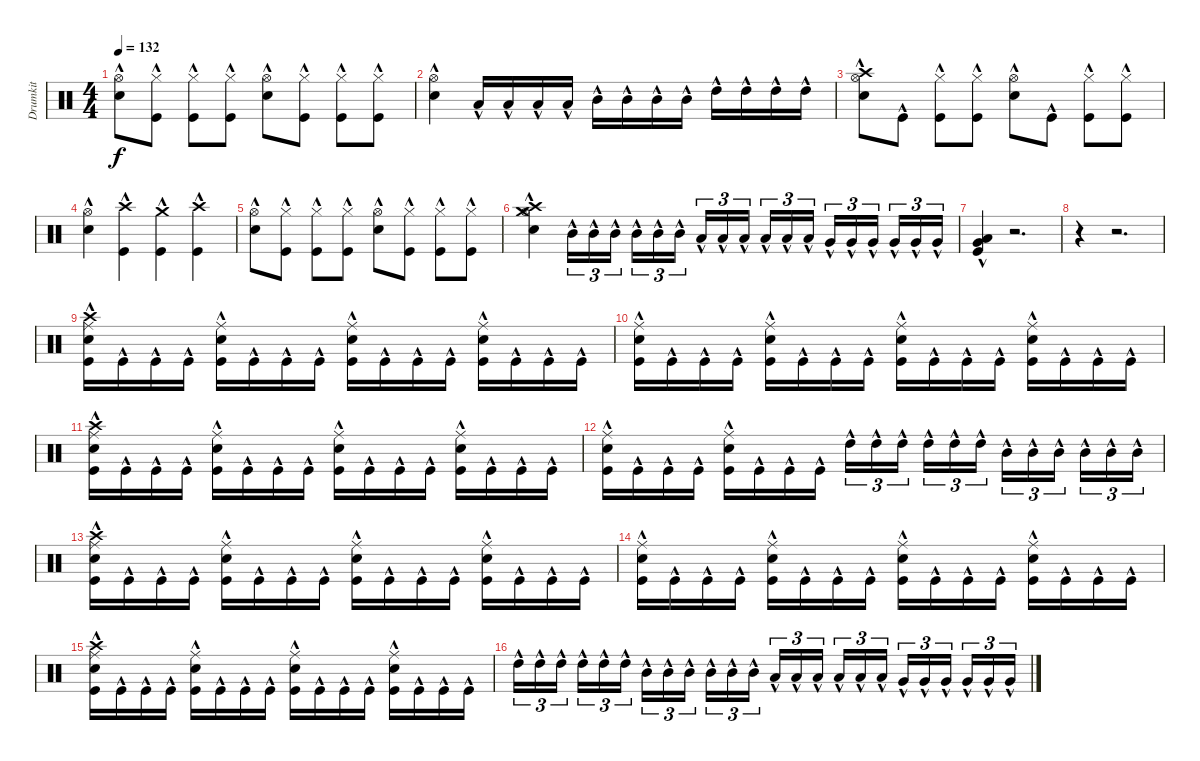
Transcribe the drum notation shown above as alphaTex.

\track ("Drumkit" "Drumkit") {instrument percussion}
\staff {score}
\articulation defaults
\ts (4 4)
\tempo 132
\clef neutral
\ks c
("Hi-Hat (open)"{hac} "Snare (hit) 2"{hac}).8{dy f} ("Kick (hit)"{hac} "Hi-Hat (closed)").8 ("Kick (hit)"{hac} "Hi-Hat (closed)").8 ("Kick (hit)"{hac} "Hi-Hat (closed)").8 ("Hi-Hat (open)"{hac} "Snare (hit) 2"{hac}).8 ("Kick (hit)"{hac} "Hi-Hat (closed)").8 ("Kick (hit)"{hac} "Hi-Hat (closed)").8 ("Kick (hit)"{hac} "Hi-Hat (closed)").8 |
("Hi-Hat (open)"{hac} "Snare (hit) 2"{hac}).4 "Low Tom (hit)"{hac}.16 "Low Tom (hit)"{hac}.16 "Low Tom (hit)"{hac}.16 "Low Tom (hit)"{hac}.16 "Mid Tom (hit)"{hac}.16 "Mid Tom (hit)"{hac}.16 "Mid Tom (hit)"{hac}.16 "Mid Tom (hit)"{hac}.16 "High Tom (hit)"{hac}.16 "High Tom (hit)"{hac}.16 "High Tom (hit)"{hac}.16 "High Tom (hit)"{hac}.16 |
("Hi-Hat (open)"{hac} "Snare (hit) 2"{hac} "Crash high (hit)").8 "Kick (hit)"{hac}.8 ("Kick (hit)"{hac} "Hi-Hat (closed)").8 ("Kick (hit)"{hac} "Hi-Hat (closed)").8 ("Hi-Hat (open)"{hac} "Snare (hit) 2"{hac}).8 "Kick (hit)"{hac}.8 ("Kick (hit)"{hac} "Hi-Hat (closed)").8 ("Kick (hit)"{hac} "Hi-Hat (closed)").8 |
("Hi-Hat (open)"{hac} "Snare (hit) 2"{hac}).4 ("Crash high (hit)"{hac} "Kick (hit)"{hac}).4 ("Crash medium (hit)"{hac} "Kick (hit)"{hac}).4 ("Crash high (hit)"{hac} "Kick (hit)"{hac}).4 |
("Hi-Hat (open)"{hac} "Snare (hit) 2"{hac}).8 ("Kick (hit)"{hac} "Hi-Hat (closed)").8 ("Kick (hit)"{hac} "Hi-Hat (closed)").8 ("Kick (hit)"{hac} "Hi-Hat (closed)").8 ("Hi-Hat (open)"{hac} "Snare (hit) 2"{hac}).8 ("Kick (hit)"{hac} "Hi-Hat (closed)").8 ("Kick (hit)"{hac} "Hi-Hat (closed)").8 ("Kick (hit)"{hac} "Hi-Hat (closed)").8 |
("Hi-Hat (open)"{hac} "Snare (hit) 2"{hac} "Crash high (hit)"{hac} "Crash medium (hit)"{hac}).4 "Mid Tom (hit)"{hac}.16{tu (3 2)} "Mid Tom (hit)"{hac}.16{tu (3 2)} "Mid Tom (hit)"{hac}.16{tu (3 2)} "Mid Tom (hit)"{hac}.16{tu (3 2)} "Mid Tom (hit)"{hac}.16{tu (3 2)} "Mid Tom (hit)"{hac}.16{tu (3 2)} "Low Tom (hit)"{hac}.16{tu (3 2)} "Low Tom (hit)"{hac}.16{tu (3 2)} "Low Tom (hit)"{hac}.16{tu (3 2)} "Low Tom (hit)"{hac}.16{tu (3 2)} "Low Tom (hit)"{hac}.16{tu (3 2)} "Low Tom (hit)"{hac}.16{tu (3 2)} "Very Low Tom (hit)"{hac}.16{tu (3 2)} "Very Low Tom (hit)"{hac}.16{tu (3 2)} "Very Low Tom (hit)"{hac}.16{tu (3 2)} "Very Low Tom (hit)"{hac}.16{tu (3 2)} "Very Low Tom (hit)"{hac}.16{tu (3 2)} "Very Low Tom (hit)"{hac}.16{tu (3 2)} |
("Kick (hit)"{hac} "Very Low Tom (hit)"{hac} "Low Floor Tom (hit)"{hac}).4 r.2{d} |
r.4 r.2{d} |
("Crash high (hit)"{hac} "Snare (hit) 2"{hac} "Ride (middle)"{hac} "Kick (hit)"{hac}).16 "Kick (hit)"{hac}.16 "Kick (hit)"{hac}.16 "Kick (hit)"{hac}.16 ("Snare (hit) 2"{hac} "Ride (middle)"{hac} "Kick (hit)"{hac}).16 "Kick (hit)"{hac}.16 "Kick (hit)"{hac}.16 "Kick (hit)"{hac}.16 ("Snare (hit) 2"{hac} "Ride (middle)"{hac} "Kick (hit)"{hac}).16 "Kick (hit)"{hac}.16 "Kick (hit)"{hac}.16 "Kick (hit)"{hac}.16 ("Snare (hit) 2"{hac} "Ride (middle)"{hac} "Kick (hit)"{hac}).16 "Kick (hit)"{hac}.16 "Kick (hit)"{hac}.16 "Kick (hit)"{hac}.16 |
("Snare (hit) 2"{hac} "Ride (middle)"{hac} "Kick (hit)"{hac}).16 "Kick (hit)"{hac}.16 "Kick (hit)"{hac}.16 "Kick (hit)"{hac}.16 ("Snare (hit) 2"{hac} "Ride (middle)"{hac} "Kick (hit)"{hac}).16 "Kick (hit)"{hac}.16 "Kick (hit)"{hac}.16 "Kick (hit)"{hac}.16 ("Snare (hit) 2"{hac} "Ride (middle)"{hac} "Kick (hit)"{hac}).16 "Kick (hit)"{hac}.16 "Kick (hit)"{hac}.16 "Kick (hit)"{hac}.16 ("Snare (hit) 2"{hac} "Ride (middle)"{hac} "Kick (hit)"{hac}).16 "Kick (hit)"{hac}.16 "Kick (hit)"{hac}.16 "Kick (hit)"{hac}.16 |
("Crash high (hit)"{hac} "Snare (hit) 2"{hac} "Ride (middle)"{hac} "Kick (hit)"{hac}).16 "Kick (hit)"{hac}.16 "Kick (hit)"{hac}.16 "Kick (hit)"{hac}.16 ("Snare (hit) 2"{hac} "Ride (middle)"{hac} "Kick (hit)"{hac}).16 "Kick (hit)"{hac}.16 "Kick (hit)"{hac}.16 "Kick (hit)"{hac}.16 ("Snare (hit) 2"{hac} "Ride (middle)"{hac} "Kick (hit)"{hac}).16 "Kick (hit)"{hac}.16 "Kick (hit)"{hac}.16 "Kick (hit)"{hac}.16 ("Snare (hit) 2"{hac} "Ride (middle)"{hac} "Kick (hit)"{hac}).16 "Kick (hit)"{hac}.16 "Kick (hit)"{hac}.16 "Kick (hit)"{hac}.16 |
("Snare (hit) 2"{hac} "Ride (middle)"{hac} "Kick (hit)"{hac}).16 "Kick (hit)"{hac}.16 "Kick (hit)"{hac}.16 "Kick (hit)"{hac}.16 ("Snare (hit) 2"{hac} "Ride (middle)"{hac} "Kick (hit)"{hac}).16 "Kick (hit)"{hac}.16 "Kick (hit)"{hac}.16 "Kick (hit)"{hac}.16 "High Tom (hit)"{hac}.16{tu (3 2)} "High Tom (hit)"{hac}.16{tu (3 2)} "High Tom (hit)"{hac}.16{tu (3 2)} "High Tom (hit)"{hac}.16{tu (3 2)} "High Tom (hit)"{hac}.16{tu (3 2)} "High Tom (hit)"{hac}.16{tu (3 2)} "Mid Tom (hit)"{hac}.16{tu (3 2)} "Mid Tom (hit)"{hac}.16{tu (3 2)} "Mid Tom (hit)"{hac}.16{tu (3 2)} "Mid Tom (hit)"{hac}.16{tu (3 2)} "Mid Tom (hit)"{hac}.16{tu (3 2)} "Mid Tom (hit)"{hac}.16{tu (3 2)} |
("Crash high (hit)"{hac} "Snare (hit) 2"{hac} "Ride (middle)"{hac} "Kick (hit)"{hac}).16 "Kick (hit)"{hac}.16 "Kick (hit)"{hac}.16 "Kick (hit)"{hac}.16 ("Snare (hit) 2"{hac} "Ride (middle)"{hac} "Kick (hit)"{hac}).16 "Kick (hit)"{hac}.16 "Kick (hit)"{hac}.16 "Kick (hit)"{hac}.16 ("Snare (hit) 2"{hac} "Ride (middle)"{hac} "Kick (hit)"{hac}).16 "Kick (hit)"{hac}.16 "Kick (hit)"{hac}.16 "Kick (hit)"{hac}.16 ("Snare (hit) 2"{hac} "Ride (middle)"{hac} "Kick (hit)"{hac}).16 "Kick (hit)"{hac}.16 "Kick (hit)"{hac}.16 "Kick (hit)"{hac}.16 |
("Snare (hit) 2"{hac} "Ride (middle)"{hac} "Kick (hit)"{hac}).16 "Kick (hit)"{hac}.16 "Kick (hit)"{hac}.16 "Kick (hit)"{hac}.16 ("Snare (hit) 2"{hac} "Ride (middle)"{hac} "Kick (hit)"{hac}).16 "Kick (hit)"{hac}.16 "Kick (hit)"{hac}.16 "Kick (hit)"{hac}.16 ("Snare (hit) 2"{hac} "Ride (middle)"{hac} "Kick (hit)"{hac}).16 "Kick (hit)"{hac}.16 "Kick (hit)"{hac}.16 "Kick (hit)"{hac}.16 ("Snare (hit) 2"{hac} "Ride (middle)"{hac} "Kick (hit)"{hac}).16 "Kick (hit)"{hac}.16 "Kick (hit)"{hac}.16 "Kick (hit)"{hac}.16 |
("Crash high (hit)"{hac} "Snare (hit) 2"{hac} "Ride (middle)"{hac} "Kick (hit)"{hac}).16 "Kick (hit)"{hac}.16 "Kick (hit)"{hac}.16 "Kick (hit)"{hac}.16 ("Snare (hit) 2"{hac} "Ride (middle)"{hac} "Kick (hit)"{hac}).16 "Kick (hit)"{hac}.16 "Kick (hit)"{hac}.16 "Kick (hit)"{hac}.16 ("Snare (hit) 2"{hac} "Ride (middle)"{hac} "Kick (hit)"{hac}).16 "Kick (hit)"{hac}.16 "Kick (hit)"{hac}.16 "Kick (hit)"{hac}.16 ("Snare (hit) 2"{hac} "Ride (middle)"{hac} "Kick (hit)"{hac}).16 "Kick (hit)"{hac}.16 "Kick (hit)"{hac}.16 "Kick (hit)"{hac}.16 |
"High Tom (hit)"{hac}.16{tu (3 2)} "High Tom (hit)"{hac}.16{tu (3 2)} "High Tom (hit)"{hac}.16{tu (3 2)} "High Tom (hit)"{hac}.16{tu (3 2)} "High Tom (hit)"{hac}.16{tu (3 2)} "High Tom (hit)"{hac}.16{tu (3 2)} "Mid Tom (hit)"{hac}.16{tu (3 2)} "Mid Tom (hit)"{hac}.16{tu (3 2)} "Mid Tom (hit)"{hac}.16{tu (3 2)} "Mid Tom (hit)"{hac}.16{tu (3 2)} "Mid Tom (hit)"{hac}.16{tu (3 2)} "Mid Tom (hit)"{hac}.16{tu (3 2)} "Low Tom (hit)"{hac}.16{tu (3 2)} "Low Tom (hit)"{hac}.16{tu (3 2)} "Low Tom (hit)"{hac}.16{tu (3 2)} "Low Tom (hit)"{hac}.16{tu (3 2)} "Low Tom (hit)"{hac}.16{tu (3 2)} "Low Tom (hit)"{hac}.16{tu (3 2)} "Very Low Tom (hit)"{hac}.16{tu (3 2)} "Very Low Tom (hit)"{hac}.16{tu (3 2)} "Very Low Tom (hit)"{hac}.16{tu (3 2)} "Very Low Tom (hit)"{hac}.16{tu (3 2)} "Very Low Tom (hit)"{hac}.16{tu (3 2)} "Very Low Tom (hit)"{hac}.16{tu (3 2)}
